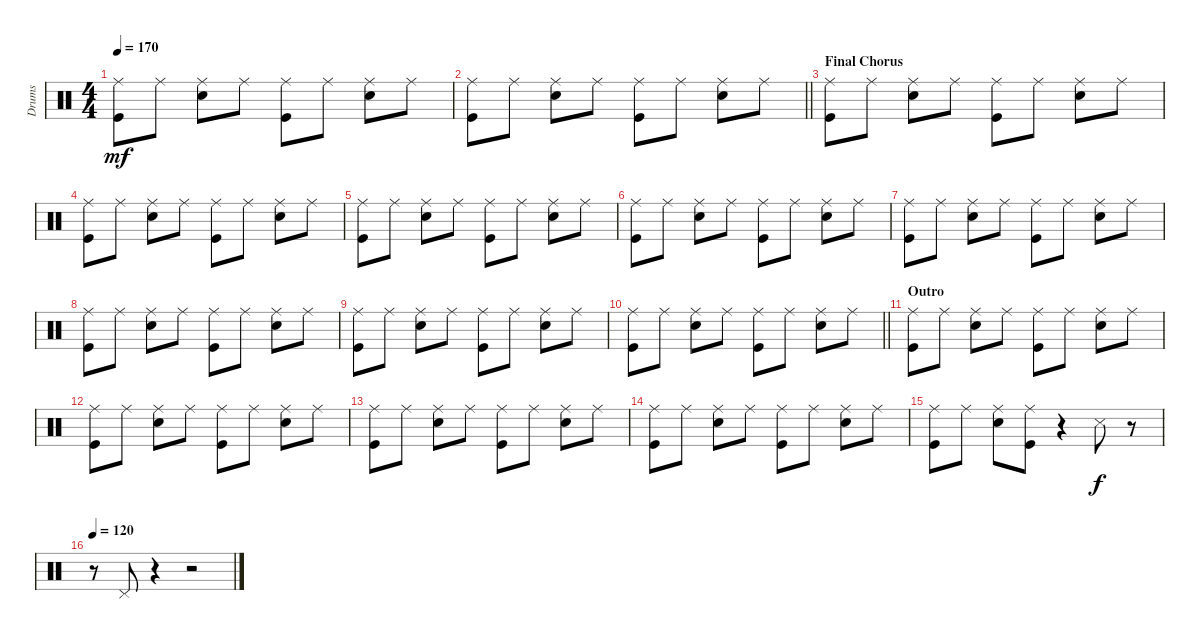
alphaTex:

\track ("Drums" "Drums") {instrument percussion}
\staff {score}
\articulation defaults
\ts (4 4)
\tempo 170
\clef neutral
\ks c
("Ride (middle)" "Kick (hit)").8{dy mf} "Ride (middle)".8 ("Ride (middle)" "Snare (hit) 2").8 "Ride (middle)".8 ("Ride (middle)" "Kick (hit)").8 "Ride (middle)".8 ("Ride (middle)" "Snare (hit) 2").8 "Ride (middle)".8 |
\barLineRight lightlight
("Ride (middle)" "Kick (hit)").8 "Ride (middle)".8 ("Ride (middle)" "Snare (hit) 2").8 "Ride (middle)".8 ("Ride (middle)" "Kick (hit)").8 "Ride (middle)".8 ("Ride (middle)" "Snare (hit) 2").8 "Ride (middle)".8 |
\section ("" "Final Chorus")
("Ride (middle)" "Kick (hit)").8 "Ride (middle)".8 ("Ride (middle)" "Snare (hit) 2").8 "Ride (middle)".8 ("Ride (middle)" "Kick (hit)").8 "Ride (middle)".8 ("Ride (middle)" "Snare (hit) 2").8 "Ride (middle)".8 |
("Ride (middle)" "Kick (hit)").8 "Ride (middle)".8 ("Ride (middle)" "Snare (hit) 2").8 "Ride (middle)".8 ("Ride (middle)" "Kick (hit)").8 "Ride (middle)".8 ("Ride (middle)" "Snare (hit) 2").8 "Ride (middle)".8 |
("Ride (middle)" "Kick (hit)").8 "Ride (middle)".8 ("Ride (middle)" "Snare (hit) 2").8 "Ride (middle)".8 ("Ride (middle)" "Kick (hit)").8 "Ride (middle)".8 ("Ride (middle)" "Snare (hit) 2").8 "Ride (middle)".8 |
("Ride (middle)" "Kick (hit)").8 "Ride (middle)".8 ("Ride (middle)" "Snare (hit) 2").8 "Ride (middle)".8 ("Ride (middle)" "Kick (hit)").8 "Ride (middle)".8 ("Ride (middle)" "Snare (hit) 2").8 "Ride (middle)".8 |
("Ride (middle)" "Kick (hit)").8 "Ride (middle)".8 ("Ride (middle)" "Snare (hit) 2").8 "Ride (middle)".8 ("Ride (middle)" "Kick (hit)").8 "Ride (middle)".8 ("Ride (middle)" "Snare (hit) 2").8 "Ride (middle)".8 |
("Ride (middle)" "Kick (hit)").8 "Ride (middle)".8 ("Ride (middle)" "Snare (hit) 2").8 "Ride (middle)".8 ("Ride (middle)" "Kick (hit)").8 "Ride (middle)".8 ("Ride (middle)" "Snare (hit) 2").8 "Ride (middle)".8 |
("Ride (middle)" "Kick (hit)").8 "Ride (middle)".8 ("Ride (middle)" "Snare (hit) 2").8 "Ride (middle)".8 ("Ride (middle)" "Kick (hit)").8 "Ride (middle)".8 ("Ride (middle)" "Snare (hit) 2").8 "Ride (middle)".8 |
\barLineRight lightlight
("Ride (middle)" "Kick (hit)").8 "Ride (middle)".8 ("Ride (middle)" "Snare (hit) 2").8 "Ride (middle)".8 ("Ride (middle)" "Kick (hit)").8 "Ride (middle)".8 ("Ride (middle)" "Snare (hit) 2").8 "Ride (middle)".8 |
\section ("" "Outro")
("Ride (middle)" "Kick (hit)").8 "Ride (middle)".8 ("Ride (middle)" "Snare (hit) 2").8 "Ride (middle)".8 ("Ride (middle)" "Kick (hit)").8 "Ride (middle)".8 ("Ride (middle)" "Snare (hit) 2").8 "Ride (middle)".8 |
("Ride (middle)" "Kick (hit)").8 "Ride (middle)".8 ("Ride (middle)" "Snare (hit) 2").8 "Ride (middle)".8 ("Ride (middle)" "Kick (hit)").8 "Ride (middle)".8 ("Ride (middle)" "Snare (hit) 2").8 "Ride (middle)".8 |
("Ride (middle)" "Kick (hit)").8 "Ride (middle)".8 ("Ride (middle)" "Snare (hit) 2").8 "Ride (middle)".8 ("Ride (middle)" "Kick (hit)").8 "Ride (middle)".8 ("Ride (middle)" "Snare (hit) 2").8 "Ride (middle)".8 |
("Ride (middle)" "Kick (hit)").8 "Ride (middle)".8 ("Ride (middle)" "Snare (hit) 2").8 "Ride (middle)".8 ("Ride (middle)" "Kick (hit)").8 "Ride (middle)".8 ("Ride (middle)" "Snare (hit) 2").8 "Ride (middle)".8 |
("Ride (middle)" "Kick (hit)").8 "Ride (middle)".8 ("Ride (middle)" "Snare (hit) 2").8 ("Ride (middle)" "Kick (hit)").8 r.4 "Snare (side stick) 3".8{dy f} r.8 |
\tempo 120
r.8 "Pedal Hi-Hat (hit)".8 r.4 r.2
